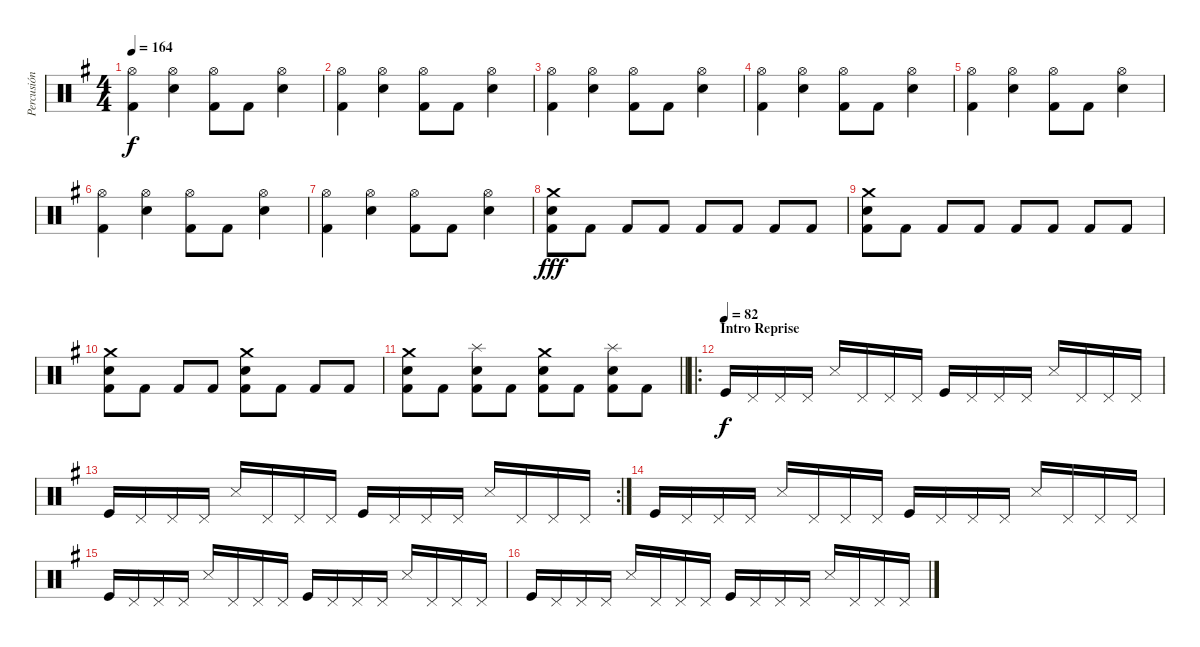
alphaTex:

\track ("Percusión" "Percusión") {instrument percussion}
\staff {score}
\articulation defaults
\ts (4 4)
\tempo 164
\clef neutral
\ks g
("Hi-Hat (open)" "Kick (hit) 2").4{dy f} ("Hi-Hat (open)" "Snare (hit) 2").4 ("Hi-Hat (open)" "Kick (hit) 2").8 "Kick (hit) 2".8 ("Hi-Hat (open)" "Snare (hit) 2").4 |
("Hi-Hat (open)" "Kick (hit) 2").4 ("Hi-Hat (open)" "Snare (hit) 2").4 ("Hi-Hat (open)" "Kick (hit) 2").8 "Kick (hit) 2".8 ("Hi-Hat (open)" "Snare (hit) 2").4 |
("Hi-Hat (open)" "Kick (hit) 2").4 ("Hi-Hat (open)" "Snare (hit) 2").4 ("Hi-Hat (open)" "Kick (hit) 2").8 "Kick (hit) 2".8 ("Hi-Hat (open)" "Snare (hit) 2").4 |
("Hi-Hat (open)" "Kick (hit) 2").4 ("Hi-Hat (open)" "Snare (hit) 2").4 ("Hi-Hat (open)" "Kick (hit) 2").8 "Kick (hit) 2".8 ("Hi-Hat (open)" "Snare (hit) 2").4 |
("Hi-Hat (open)" "Kick (hit) 2").4 ("Hi-Hat (open)" "Snare (hit) 2").4 ("Hi-Hat (open)" "Kick (hit) 2").8 "Kick (hit) 2".8 ("Hi-Hat (open)" "Snare (hit) 2").4 |
("Hi-Hat (open)" "Kick (hit) 2").4 ("Hi-Hat (open)" "Snare (hit) 2").4 ("Hi-Hat (open)" "Kick (hit) 2").8 "Kick (hit) 2".8 ("Hi-Hat (open)" "Snare (hit) 2").4 |
("Hi-Hat (open)" "Kick (hit) 2").4 ("Hi-Hat (open)" "Snare (hit) 2").4 ("Hi-Hat (open)" "Kick (hit) 2").8 "Kick (hit) 2".8 ("Hi-Hat (open)" "Snare (hit) 2").4 |
("Crash medium (hit)" "Snare (hit) 2" "Kick (hit) 2").8{dy fff} "Kick (hit) 2".8 "Kick (hit) 2".8 "Kick (hit) 2".8 "Kick (hit) 2".8 "Kick (hit) 2".8 "Kick (hit) 2".8 "Kick (hit) 2".8 |
("Crash medium (hit)" "Snare (hit) 2" "Kick (hit) 2").8 "Kick (hit) 2".8 "Kick (hit) 2".8 "Kick (hit) 2".8 "Kick (hit) 2".8 "Kick (hit) 2".8 "Kick (hit) 2".8 "Kick (hit) 2".8 |
("Crash medium (hit)" "Snare (hit) 2" "Kick (hit) 2").8 "Kick (hit) 2".8 "Kick (hit) 2".8 "Kick (hit) 2".8 ("Crash medium (hit)" "Snare (hit) 2" "Kick (hit) 2").8 "Kick (hit) 2".8 "Kick (hit) 2".8 "Kick (hit) 2".8 |
\barLineRight lightlight
("Crash medium (hit)" "Snare (hit) 2" "Kick (hit) 2").8 "Kick (hit) 2".8 ("Splash (hit)" "Snare (hit) 2" "Kick (hit) 2").8 "Kick (hit) 2".8 ("Crash medium (hit)" "Snare (hit) 2" "Kick (hit) 2").8 "Kick (hit) 2".8 ("Splash (hit)" "Snare (hit) 2" "Kick (hit) 2").8 "Kick (hit) 2".8 |
\ro
\section ("" "Intro Reprise")
\tempo (82)
"Kick (hit)".16{dy f} "Pedal Hi-Hat (hit)".16 "Pedal Hi-Hat (hit)".16 "Pedal Hi-Hat (hit)".16 "Snare (side stick) 3".16 "Pedal Hi-Hat (hit)".16 "Pedal Hi-Hat (hit)".16 "Pedal Hi-Hat (hit)".16 "Kick (hit)".16 "Pedal Hi-Hat (hit)".16 "Pedal Hi-Hat (hit)".16 "Pedal Hi-Hat (hit)".16 "Snare (side stick) 3".16 "Pedal Hi-Hat (hit)".16 "Pedal Hi-Hat (hit)".16 "Pedal Hi-Hat (hit)".16 |
\rc 2 "Kick (hit)".16 "Pedal Hi-Hat (hit)".16 "Pedal Hi-Hat (hit)".16 "Pedal Hi-Hat (hit)".16 "Snare (side stick) 3".16 "Pedal Hi-Hat (hit)".16 "Pedal Hi-Hat (hit)".16 "Pedal Hi-Hat (hit)".16 "Kick (hit)".16 "Pedal Hi-Hat (hit)".16 "Pedal Hi-Hat (hit)".16 "Pedal Hi-Hat (hit)".16 "Snare (side stick) 3".16 "Pedal Hi-Hat (hit)".16 "Pedal Hi-Hat (hit)".16 "Pedal Hi-Hat (hit)".16
|
"Kick (hit)".16 "Pedal Hi-Hat (hit)".16 "Pedal Hi-Hat (hit)".16 "Pedal Hi-Hat (hit)".16 "Snare (side stick) 3".16 "Pedal Hi-Hat (hit)".16 "Pedal Hi-Hat (hit)".16 "Pedal Hi-Hat (hit)".16 "Kick (hit)".16 "Pedal Hi-Hat (hit)".16 "Pedal Hi-Hat (hit)".16 "Pedal Hi-Hat (hit)".16 "Snare (side stick) 3".16 "Pedal Hi-Hat (hit)".16 "Pedal Hi-Hat (hit)".16 "Pedal Hi-Hat (hit)".16 |
"Kick (hit)".16 "Pedal Hi-Hat (hit)".16 "Pedal Hi-Hat (hit)".16 "Pedal Hi-Hat (hit)".16 "Snare (side stick) 3".16 "Pedal Hi-Hat (hit)".16 "Pedal Hi-Hat (hit)".16 "Pedal Hi-Hat (hit)".16 "Kick (hit)".16 "Pedal Hi-Hat (hit)".16 "Pedal Hi-Hat (hit)".16 "Pedal Hi-Hat (hit)".16 "Snare (side stick) 3".16 "Pedal Hi-Hat (hit)".16 "Pedal Hi-Hat (hit)".16 "Pedal Hi-Hat (hit)".16 |
"Kick (hit)".16 "Pedal Hi-Hat (hit)".16 "Pedal Hi-Hat (hit)".16 "Pedal Hi-Hat (hit)".16 "Snare (side stick) 3".16 "Pedal Hi-Hat (hit)".16 "Pedal Hi-Hat (hit)".16 "Pedal Hi-Hat (hit)".16 "Kick (hit)".16 "Pedal Hi-Hat (hit)".16 "Pedal Hi-Hat (hit)".16 "Pedal Hi-Hat (hit)".16 "Snare (side stick) 3".16 "Pedal Hi-Hat (hit)".16 "Pedal Hi-Hat (hit)".16 "Pedal Hi-Hat (hit)".16
